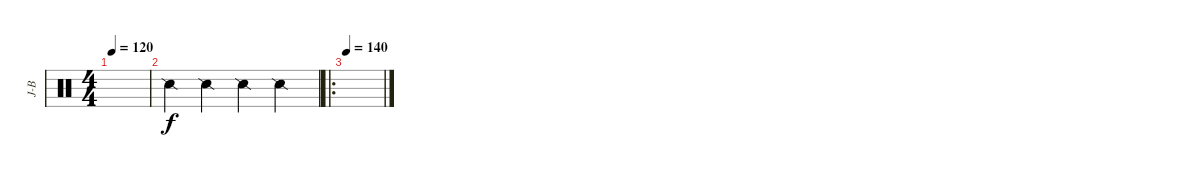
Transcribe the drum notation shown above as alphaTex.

\track ("J-B" "J-B") {instrument percussion}
\staff {score}
\articulation defaults
\ts (4 4)
\tempo 120
\clef neutral
\ks c
|
"Snare (side stick) 2".4 "Snare (side stick) 2".4 "Snare (side stick) 2".4 "Snare (side stick) 2".4 |
\ro
\tempo 140
